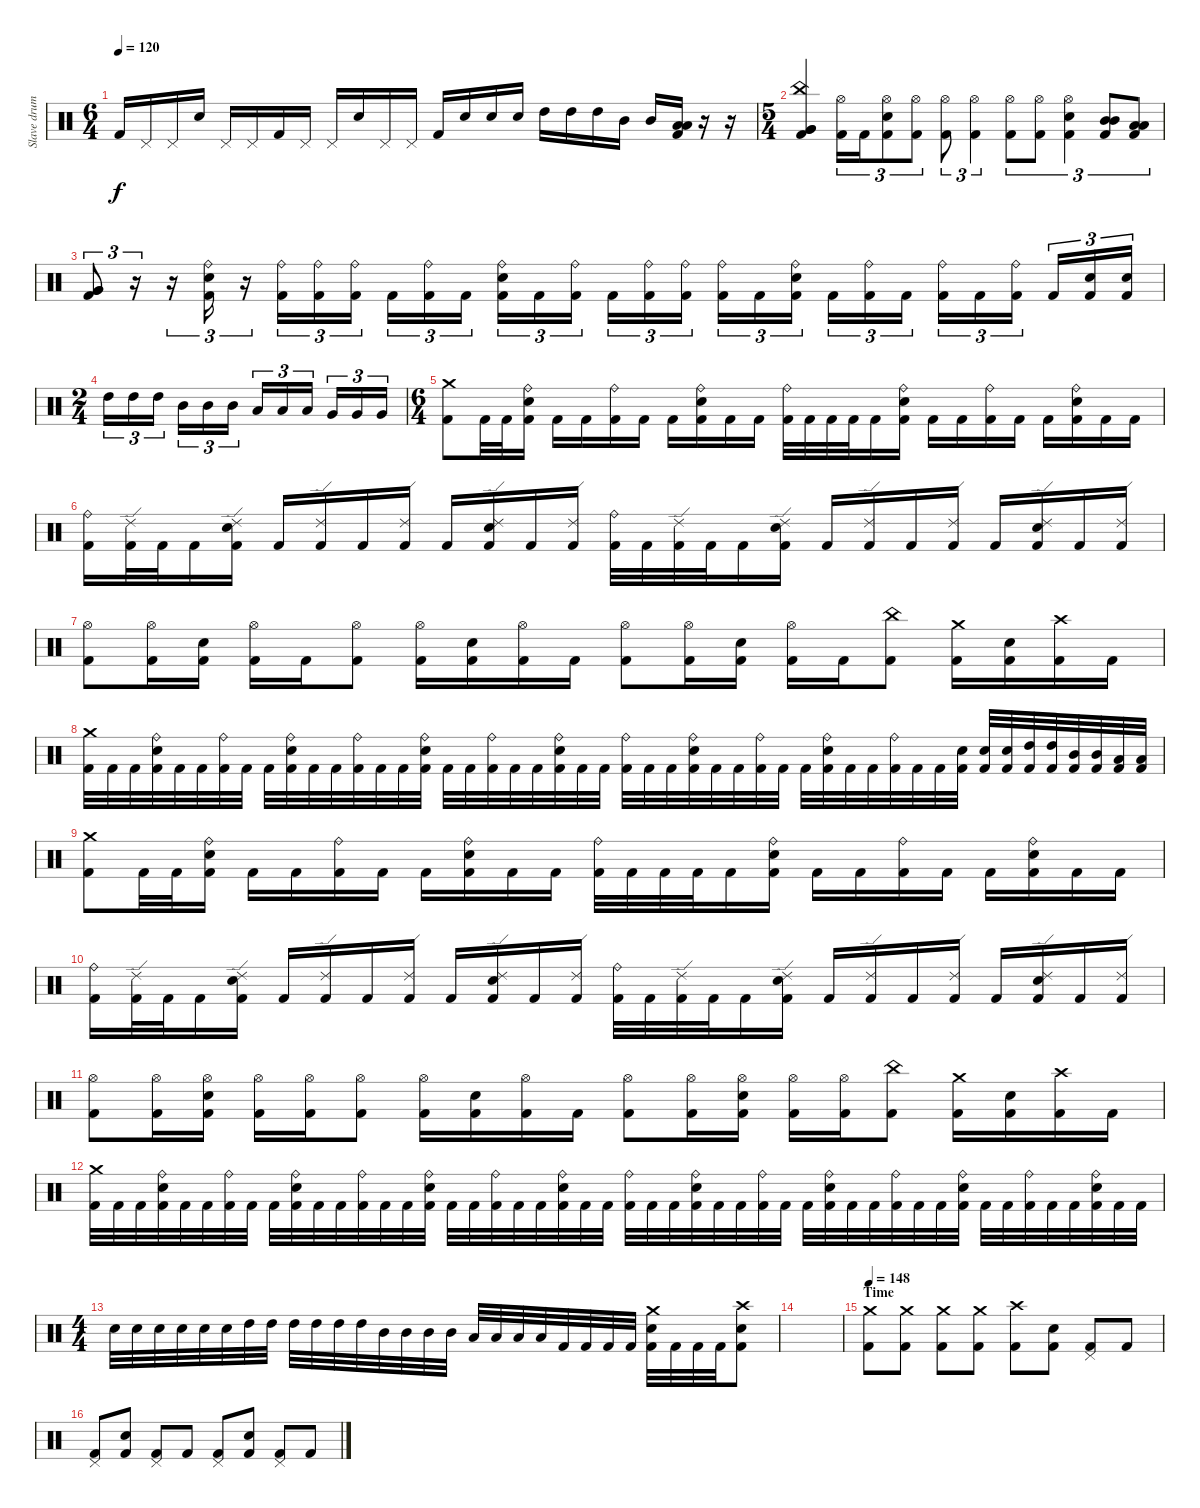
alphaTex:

\track ("Slave drum" "Slave drum") {instrument percussion}
\staff {score}
\articulation defaults
\ts (6 4)
\tempo 120
\clef neutral
\ks c "Kick (hit) 2".16{dy f} "Pedal Hi-Hat (hit)".16 "Pedal Hi-Hat (hit)".16 "Electric Snare (hit)".16 "Pedal Hi-Hat (hit)".16 "Pedal Hi-Hat (hit)".16 "Kick (hit) 2".16 "Pedal Hi-Hat (hit)".16 "Pedal Hi-Hat (hit)".16 "Electric Snare (hit)".16 "Pedal Hi-Hat (hit)".16 "Pedal Hi-Hat (hit)".16 "Kick (hit) 2".16 "Electric Snare (hit)".16 "Electric Snare (hit)".16 "Electric Snare (hit)".16 "High Tom (hit)".16 "High Tom (hit)".16 "High Tom (hit)".16 "Mid Tom (hit)".16 "Mid Tom (hit)".16
("Low Tom (hit)" "Low Tom (hit)" "Kick (hit) 2").16 r.16 r.16 |
\ts (5 4)
("China (hit)" "Very Low Tom (hit)" "Very Low Tom (hit)" "Kick (hit) 2").4 ("Hi-Hat (open)" "Kick (hit) 2").16{tu (3 2)} "Kick (hit) 2".16{tu (3 2)} ("Hi-Hat (open)" "Electric Snare (hit)" "Kick (hit) 2").8{tu (3 2)} ("Hi-Hat (open)" "Kick (hit) 2").8{tu (3 2)} ("Hi-Hat (open)" "Kick (hit) 2").8{tu (3 2)} ("Hi-Hat (open)" "Kick (hit) 2").4{tu (3 2)} ("Hi-Hat (open)" "Kick (hit) 2").8{tu (3 2)} ("Hi-Hat (open)" "Kick (hit) 2").8{tu (3 2)} ("Hi-Hat (open)" "Electric Snare (hit)" "Kick (hit) 2").4{tu (3 2)} ("Mid Tom (hit)" "Mid Tom (hit)" "Kick (hit) 2").8{tu (3 2)} ("Low Tom (hit)" "Low Tom (hit)" "Kick (hit) 2").8{tu (3 2)} |
("Very Low Tom (hit)" "Very Low Tom (hit)" "Kick (hit) 2").8{tu (3 2)} r.16{tu (3 2)} r.16{tu (3 2)} ("Ride (bell)" "Electric Snare (hit)" "Kick (hit) 2").16{tu (3 2)} r.16{tu (3 2)} ("Ride (bell)" "Kick (hit) 2").16{tu (3 2)} ("Ride (bell)" "Kick (hit) 2").16{tu (3 2)} ("Ride (bell)" "Kick (hit) 2").16{tu (3 2)} "Kick (hit) 2".16{tu (3 2)} ("Ride (bell)" "Kick (hit) 2").16{tu (3 2)} "Kick (hit) 2".16{tu (3 2)} ("Ride (bell)" "Electric Snare (hit)" "Kick (hit) 2").16{tu (3 2)} "Kick (hit) 2".16{tu (3 2)} ("Ride (bell)" "Kick (hit) 2").16{tu (3 2)} "Kick (hit) 2".16{tu (3 2)} ("Ride (bell)" "Kick (hit) 2").16{tu (3 2)} ("Ride (bell)" "Kick (hit) 2").16{tu (3 2)} ("Ride (bell)" "Kick (hit) 2").16{tu (3 2)} "Kick (hit) 2".16{tu (3 2)} ("Ride (bell)" "Electric Snare (hit)" "Kick (hit) 2").16{tu (3 2)} "Kick (hit) 2".16{tu (3 2)} ("Ride (bell)" "Kick (hit) 2").16{tu (3 2)} "Kick (hit) 2".16{tu (3 2)} ("Ride (bell)" "Kick (hit) 2").16{tu (3 2)} "Kick (hit) 2".16{tu (3 2)} ("Ride (bell)" "Kick (hit) 2").16{tu (3 2)} "Kick (hit) 2".16{tu (3 2)} ("Electric Snare (hit)" "Kick (hit) 2").16{tu (3 2)} ("Electric Snare (hit)" "Kick (hit) 2").16{tu (3 2)} |
\ts (2 4)
"High Tom (hit)".16{tu (3 2)} "High Tom (hit)".16{tu (3 2)} "High Tom (hit)".16{tu (3 2)} "Mid Tom (hit)".16{tu (3 2)} "Mid Tom (hit)".16{tu (3 2)} "Mid Tom (hit)".16{tu (3 2)} "Low Tom (hit)".16{tu (3 2)} "Low Tom (hit)".16{tu (3 2)} "Low Tom (hit)".16{tu (3 2)} "Very Low Tom (hit)".16{tu (3 2)} "Very Low Tom (hit)".16{tu (3 2)} "Very Low Tom (hit)".16{tu (3 2)} |
\ts (6 4)
("Crash medium (hit)" "Kick (hit) 2").8 "Kick (hit) 2".32 "Kick (hit) 2".32 ("Ride (bell)" "Electric Snare (hit)" "Kick (hit) 2").16 "Kick (hit) 2".16 "Kick (hit) 2".16 ("Ride (bell)" "Kick (hit) 2").16 "Kick (hit) 2".16 "Kick (hit) 2".16 ("Ride (bell)" "Electric Snare (hit)" "Kick (hit) 2").16 "Kick (hit) 2".16 "Kick (hit) 2".16 ("Ride (bell)" "Kick (hit) 2").32 "Kick (hit) 2".32 "Kick (hit) 2".32 "Kick (hit) 2".32 "Kick (hit) 2".16 ("Ride (bell)" "Electric Snare (hit)" "Kick (hit) 2").16 "Kick (hit) 2".16 "Kick (hit) 2".16 ("Ride (bell)" "Kick (hit) 2").16 "Kick (hit) 2".16 "Kick (hit) 2".16 ("Ride (bell)" "Electric Snare (hit)" "Kick (hit) 2").16 "Kick (hit) 2".16 "Kick (hit) 2".16 |
("Ride (bell)" "Kick (hit) 2").16 ("Ride (edge) 2" "Kick (hit) 2").32 "Kick (hit) 2".32 "Kick (hit) 2".16 ("Ride (edge) 2" "Electric Snare (hit)" "Kick (hit) 2").16 "Kick (hit) 2".16 ("Ride (edge) 2" "Kick (hit) 2").16 "Kick (hit) 2".16 ("Ride (edge) 2" "Kick (hit) 2").16 "Kick (hit) 2".16 ("Ride (edge) 2" "Electric Snare (hit)" "Kick (hit) 2").16 "Kick (hit) 2".16 ("Ride (edge) 2" "Kick (hit) 2").16 ("Ride (bell)" "Kick (hit) 2").32 "Kick (hit) 2".32 ("Ride (edge) 2" "Kick (hit) 2").32 "Kick (hit) 2".32 "Kick (hit) 2".16 ("Ride (edge) 2" "Electric Snare (hit)" "Kick (hit) 2").16 "Kick (hit) 2".16 ("Ride (edge) 2" "Kick (hit) 2").16 "Kick (hit) 2".16 ("Ride (edge) 2" "Kick (hit) 2").16 "Kick (hit) 2".16 ("Ride (edge) 2" "Electric Snare (hit)" "Kick (hit) 2").16 "Kick (hit) 2".16 ("Ride (edge) 2" "Kick (hit) 2").16 |
("Hi-Hat (open)" "Kick (hit) 2").8 ("Hi-Hat (open)" "Kick (hit) 2").16 ("Electric Snare (hit)" "Kick (hit) 2").16 ("Hi-Hat (open)" "Kick (hit) 2").16 "Kick (hit) 2".16 ("Hi-Hat (open)" "Kick (hit) 2").8 ("Hi-Hat (open)" "Kick (hit) 2").16 ("Electric Snare (hit)" "Kick (hit) 2").16 ("Hi-Hat (open)" "Kick (hit) 2").16 "Kick (hit) 2".16 ("Hi-Hat (open)" "Kick (hit) 2").8 ("Hi-Hat (open)" "Kick (hit) 2").16 ("Electric Snare (hit)" "Kick (hit) 2").16 ("Hi-Hat (open)" "Kick (hit) 2").16 "Kick (hit) 2".16 ("China (hit)" "Kick (hit) 2").8 ("Crash medium (hit)" "Kick (hit) 2").16 ("Electric Snare (hit)" "Kick (hit) 2").16 ("Crash high (hit)" "Kick (hit) 2").16 "Kick (hit) 2".16 |
("Crash medium (hit)" "Kick (hit) 2").32 "Kick (hit) 2".32 "Kick (hit) 2".32 ("Ride (bell)" "Electric Snare (hit)" "Kick (hit) 2").32 "Kick (hit) 2".32 "Kick (hit) 2".32 ("Ride (bell)" "Kick (hit) 2").32 "Kick (hit) 2".32 "Kick (hit) 2".32 ("Ride (bell)" "Electric Snare (hit)" "Kick (hit) 2").32 "Kick (hit) 2".32 "Kick (hit) 2".32 ("Ride (bell)" "Kick (hit) 2").32 "Kick (hit) 2".32 "Kick (hit) 2".32 ("Ride (bell)" "Electric Snare (hit)" "Kick (hit) 2").32 "Kick (hit) 2".32 "Kick (hit) 2".32 ("Ride (bell)" "Kick (hit) 2").32 "Kick (hit) 2".32 "Kick (hit) 2".32 ("Ride (bell)" "Electric Snare (hit)" "Kick (hit) 2").32 "Kick (hit) 2".32 "Kick (hit) 2".32 ("Ride (bell)" "Kick (hit) 2").32 "Kick (hit) 2".32 "Kick (hit) 2".32 ("Ride (bell)" "Electric Snare (hit)" "Kick (hit) 2").32 "Kick (hit) 2".32 "Kick (hit) 2".32 ("Ride (bell)" "Kick (hit) 2").32 "Kick (hit) 2".32 "Kick (hit) 2".32 ("Ride (bell)" "Electric Snare (hit)" "Kick (hit) 2").32 "Kick (hit) 2".32 "Kick (hit) 2".32 ("Ride (bell)" "Kick (hit) 2").32 "Kick (hit) 2".32 "Kick (hit) 2".32 ("Electric Snare (hit)" "Kick (hit) 2").32 ("Electric Snare (hit)" "Kick (hit) 2").32 ("Electric Snare (hit)" "Kick (hit) 2").32 ("High Tom (hit)" "Kick (hit) 2").32 ("High Tom (hit)" "Kick (hit) 2").32 ("Mid Tom (hit)" "Kick (hit) 2").32 ("Mid Tom (hit)" "Kick (hit) 2").32 ("Low Tom (hit)" "Kick (hit) 2").32 ("Low Tom (hit)" "Kick (hit) 2").32 |
("Crash medium (hit)" "Kick (hit) 2").8 "Kick (hit) 2".32 "Kick (hit) 2".32 ("Ride (bell)" "Electric Snare (hit)" "Kick (hit) 2").16 "Kick (hit) 2".16 "Kick (hit) 2".16 ("Ride (bell)" "Kick (hit) 2").16 "Kick (hit) 2".16 "Kick (hit) 2".16 ("Ride (bell)" "Electric Snare (hit)" "Kick (hit) 2").16 "Kick (hit) 2".16 "Kick (hit) 2".16 ("Ride (bell)" "Kick (hit) 2").32 "Kick (hit) 2".32 "Kick (hit) 2".32 "Kick (hit) 2".32 "Kick (hit) 2".16 ("Ride (bell)" "Electric Snare (hit)" "Kick (hit) 2").16 "Kick (hit) 2".16 "Kick (hit) 2".16 ("Ride (bell)" "Kick (hit) 2").16 "Kick (hit) 2".16 "Kick (hit) 2".16 ("Ride (bell)" "Electric Snare (hit)" "Kick (hit) 2").16 "Kick (hit) 2".16 "Kick (hit) 2".16 |
("Ride (bell)" "Kick (hit) 2").16 ("Ride (edge) 2" "Kick (hit) 2").32 "Kick (hit) 2".32 "Kick (hit) 2".16 ("Ride (edge) 2" "Electric Snare (hit)" "Kick (hit) 2").16 "Kick (hit) 2".16 ("Ride (edge) 2" "Kick (hit) 2").16 "Kick (hit) 2".16 ("Ride (edge) 2" "Kick (hit) 2").16 "Kick (hit) 2".16 ("Ride (edge) 2" "Electric Snare (hit)" "Kick (hit) 2").16 "Kick (hit) 2".16 ("Ride (edge) 2" "Kick (hit) 2").16 ("Ride (bell)" "Kick (hit) 2").32 "Kick (hit) 2".32 ("Ride (edge) 2" "Kick (hit) 2").32 "Kick (hit) 2".32 "Kick (hit) 2".16 ("Ride (edge) 2" "Electric Snare (hit)" "Kick (hit) 2").16 "Kick (hit) 2".16 ("Ride (edge) 2" "Kick (hit) 2").16 "Kick (hit) 2".16 ("Ride (edge) 2" "Kick (hit) 2").16 "Kick (hit) 2".16 ("Ride (edge) 2" "Electric Snare (hit)" "Kick (hit) 2").16 "Kick (hit) 2".16 ("Ride (edge) 2" "Kick (hit) 2").16 |
("Hi-Hat (open)" "Kick (hit) 2").8 ("Hi-Hat (open)" "Kick (hit) 2").16 ("Hi-Hat (open)" "Electric Snare (hit)" "Kick (hit) 2").16 ("Hi-Hat (open)" "Kick (hit) 2").16 ("Hi-Hat (open)" "Kick (hit) 2").16 ("Hi-Hat (open)" "Kick (hit) 2").8 ("Hi-Hat (open)" "Kick (hit) 2").16 ("Electric Snare (hit)" "Kick (hit) 2").16 ("Hi-Hat (open)" "Kick (hit) 2").16 "Kick (hit) 2".16 ("Hi-Hat (open)" "Kick (hit) 2").8 ("Hi-Hat (open)" "Kick (hit) 2").16 ("Hi-Hat (open)" "Electric Snare (hit)" "Kick (hit) 2").16 ("Hi-Hat (open)" "Kick (hit) 2").16 ("Hi-Hat (open)" "Kick (hit) 2").16 ("China (hit)" "Kick (hit) 2").8 ("Crash medium (hit)" "Kick (hit) 2").16 ("Electric Snare (hit)" "Kick (hit) 2").16 ("Crash high (hit)" "Kick (hit) 2").16 "Kick (hit) 2".16 |
("Crash medium (hit)" "Kick (hit) 2").32 "Kick (hit) 2".32 "Kick (hit) 2".32 ("Ride (bell)" "Electric Snare (hit)" "Kick (hit) 2").32 "Kick (hit) 2".32 "Kick (hit) 2".32 ("Ride (bell)" "Kick (hit) 2").32 "Kick (hit) 2".32 "Kick (hit) 2".32 ("Ride (bell)" "Electric Snare (hit)" "Kick (hit) 2").32 "Kick (hit) 2".32 "Kick (hit) 2".32 ("Ride (bell)" "Kick (hit) 2").32 "Kick (hit) 2".32 "Kick (hit) 2".32 ("Ride (bell)" "Electric Snare (hit)" "Kick (hit) 2").32 "Kick (hit) 2".32 "Kick (hit) 2".32 ("Ride (bell)" "Kick (hit) 2").32 "Kick (hit) 2".32 "Kick (hit) 2".32 ("Ride (bell)" "Electric Snare (hit)" "Kick (hit) 2").32 "Kick (hit) 2".32 "Kick (hit) 2".32 ("Ride (bell)" "Kick (hit) 2").32 "Kick (hit) 2".32 "Kick (hit) 2".32 ("Ride (bell)" "Electric Snare (hit)" "Kick (hit) 2").32 "Kick (hit) 2".32 "Kick (hit) 2".32 ("Ride (bell)" "Kick (hit) 2").32 "Kick (hit) 2".32 "Kick (hit) 2".32 ("Ride (bell)" "Electric Snare (hit)" "Kick (hit) 2").32 "Kick (hit) 2".32 "Kick (hit) 2".32 ("Ride (bell)" "Kick (hit) 2").32 "Kick (hit) 2".32 "Kick (hit) 2".32 ("Ride (bell)" "Electric Snare (hit)" "Kick (hit) 2").32 "Kick (hit) 2".32 "Kick (hit) 2".32 ("Ride (bell)" "Kick (hit) 2").32 "Kick (hit) 2".32 "Kick (hit) 2".32 ("Ride (bell)" "Electric Snare (hit)" "Kick (hit) 2").32 "Kick (hit) 2".32 "Kick (hit) 2".32 |
\ts (4 4)
"Electric Snare (hit)".32 "Electric Snare (hit)".32 "Electric Snare (hit)".32 "Electric Snare (hit)".32 "Electric Snare (hit)".32 "Electric Snare (hit)".32 "High Tom (hit)".32 "High Tom (hit)".32 "High Tom (hit)".32 "High Tom (hit)".32 "High Tom (hit)".32 "High Tom (hit)".32 "Mid Tom (hit)".32 "Mid Tom (hit)".32 "Mid Tom (hit)".32 "Mid Tom (hit)".32 "Low Tom (hit)".32 "Low Tom (hit)".32 "Low Tom (hit)".32 "Low Tom (hit)".32 "Kick (hit) 2".32 "Kick (hit) 2".32 "Kick (hit) 2".32 "Kick (hit) 2".32 ("Crash medium (hit)" "Electric Snare (hit)" "Kick (hit) 2").32 "Kick (hit) 2".32 "Kick (hit) 2".32 "Kick (hit) 2".32 ("Crash high (hit)" "Electric Snare (hit)" "Kick (hit) 2").8 |
|
\section ("" "Time")
\tempo 148
("Crash medium (hit)" "Kick (hit) 2").8 ("Crash medium (hit)" "Kick (hit) 2").8 ("Crash medium (hit)" "Kick (hit) 2").8 ("Crash medium (hit)" "Kick (hit) 2").8 ("Crash high (hit)" "Kick (hit) 2").8 ("Electric Snare (hit)" "Kick (hit) 2").8 ("Pedal Hi-Hat (hit)" "Kick (hit) 2").8 "Kick (hit) 2".8 |
("Pedal Hi-Hat (hit)" "Kick (hit) 2").8 ("Electric Snare (hit)" "Kick (hit) 2").8 ("Pedal Hi-Hat (hit)" "Kick (hit) 2").8 "Kick (hit) 2".8 ("Pedal Hi-Hat (hit)" "Kick (hit) 2").8 ("Electric Snare (hit)" "Kick (hit) 2").8 ("Pedal Hi-Hat (hit)" "Kick (hit) 2").8 "Kick (hit) 2".8
